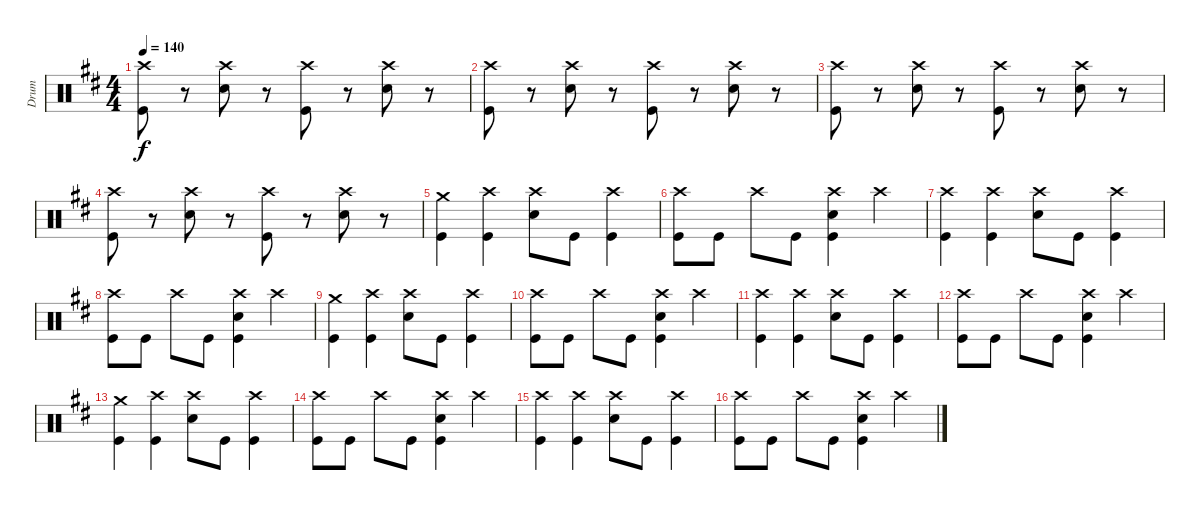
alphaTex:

\track ("Drum" "Drum") {instrument percussion}
\staff {score}
\articulation defaults
\ts (4 4)
\tempo 140
\clef neutral
\ks d
("Crash high (hit)" "Kick (hit)").8{dy f} r.8 ("Crash high (hit)" "Snare (hit) 2").8 r.8 ("Crash high (hit)" "Kick (hit)").8 r.8 ("Crash high (hit)" "Snare (hit) 2").8 r.8 |
("Crash high (hit)" "Kick (hit)").8 r.8 ("Crash high (hit)" "Snare (hit) 2").8 r.8 ("Crash high (hit)" "Kick (hit)").8 r.8 ("Crash high (hit)" "Snare (hit) 2").8 r.8 |
("Crash high (hit)" "Kick (hit)").8 r.8 ("Crash high (hit)" "Snare (hit) 2").8 r.8 ("Crash high (hit)" "Kick (hit)").8 r.8 ("Crash high (hit)" "Snare (hit) 2").8 r.8 |
("Crash high (hit)" "Kick (hit)").8 r.8 ("Crash high (hit)" "Snare (hit) 2").8 r.8 ("Crash high (hit)" "Kick (hit)").8 r.8 ("Crash high (hit)" "Snare (hit) 2").8 r.8 |
("Crash medium (hit)" "Kick (hit)").4 ("Crash high (hit)" "Kick (hit)").4 ("Crash high (hit)" "Snare (hit) 2").8 "Kick (hit)".8 ("Crash high (hit)" "Kick (hit)").4 |
("Crash high (hit)" "Kick (hit)").8 "Kick (hit)".8 "Crash high (hit)".8 "Kick (hit)".8 ("Crash high (hit)" "Snare (hit) 2" "Kick (hit)").4 "Crash high (hit)".4 |
("Crash high (hit)" "Kick (hit)").4 ("Crash high (hit)" "Kick (hit)").4 ("Crash high (hit)" "Snare (hit) 2").8 "Kick (hit)".8 ("Crash high (hit)" "Kick (hit)").4 |
("Crash high (hit)" "Kick (hit)").8 "Kick (hit)".8 "Crash high (hit)".8 "Kick (hit)".8 ("Crash high (hit)" "Snare (hit) 2" "Kick (hit)").4 "Crash high (hit)".4 |
("Crash medium (hit)" "Kick (hit)").4 ("Crash high (hit)" "Kick (hit)").4 ("Crash high (hit)" "Snare (hit) 2").8 "Kick (hit)".8 ("Crash high (hit)" "Kick (hit)").4 |
("Crash high (hit)" "Kick (hit)").8 "Kick (hit)".8 "Crash high (hit)".8 "Kick (hit)".8 ("Crash high (hit)" "Snare (hit) 2" "Kick (hit)").4 "Crash high (hit)".4 |
("Crash high (hit)" "Kick (hit)").4 ("Crash high (hit)" "Kick (hit)").4 ("Crash high (hit)" "Snare (hit) 2").8 "Kick (hit)".8 ("Crash high (hit)" "Kick (hit)").4 |
("Crash high (hit)" "Kick (hit)").8 "Kick (hit)".8 "Crash high (hit)".8 "Kick (hit)".8 ("Crash high (hit)" "Snare (hit) 2" "Kick (hit)").4 "Crash high (hit)".4 |
("Crash medium (hit)" "Kick (hit)").4 ("Crash high (hit)" "Kick (hit)").4 ("Crash high (hit)" "Snare (hit) 2").8 "Kick (hit)".8 ("Crash high (hit)" "Kick (hit)").4 |
("Crash high (hit)" "Kick (hit)").8 "Kick (hit)".8 "Crash high (hit)".8 "Kick (hit)".8 ("Crash high (hit)" "Snare (hit) 2" "Kick (hit)").4 "Crash high (hit)".4 |
("Crash high (hit)" "Kick (hit)").4 ("Crash high (hit)" "Kick (hit)").4 ("Crash high (hit)" "Snare (hit) 2").8 "Kick (hit)".8 ("Crash high (hit)" "Kick (hit)").4 |
("Crash high (hit)" "Kick (hit)").8 "Kick (hit)".8 "Crash high (hit)".8 "Kick (hit)".8 ("Crash high (hit)" "Snare (hit) 2" "Kick (hit)").4 "Crash high (hit)".4
